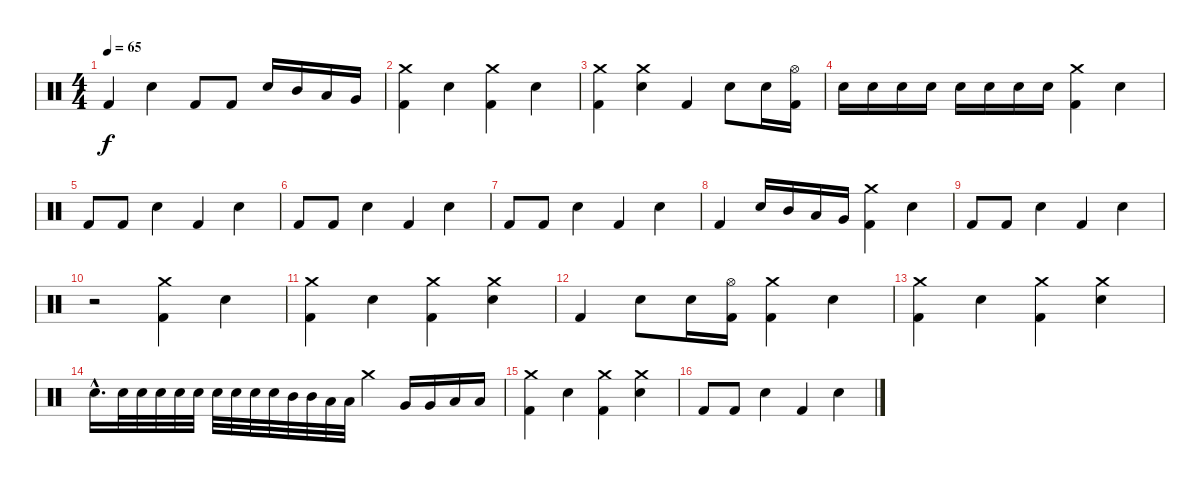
\track "" {instrument percussion}
\staff {score}
\articulation defaults
\ts (4 4)
\tempo 65
\clef neutral
\ks c "Kick (hit) 2".4{dy f} "Snare (hit) 2".4 "Kick (hit) 2".8 "Kick (hit) 2".8 "Electric Snare (hit)".16 "Mid Tom (hit)".16 "Low Tom (hit)".16 "Very Low Tom (hit)".16
|
("Kick (hit) 2" "Crash medium (hit)").4 "Snare (hit) 2".4 ("Kick (hit) 2" "Crash medium (hit)").4 "Snare (hit) 2".4 |
("Kick (hit) 2" "Crash medium (hit)").4 ("Crash medium (hit)" "Snare (hit) 2").4 "Kick (hit) 2".4 "Snare (hit) 2".8 "Snare (hit) 2".16 ("Kick (hit) 2" "Hi-Hat (open)").16 |
"Snare (hit) 2".16 "Snare (hit) 2".16 "Snare (hit) 2".16 "Snare (hit) 2".16 "Snare (hit) 2".16 "Snare (hit) 2".16 "Snare (hit) 2".16 "Snare (hit) 2".16 ("Kick (hit) 2" "Crash medium (hit)").4 "Snare (hit) 2".4 |
"Kick (hit) 2".8 "Kick (hit) 2".8 "Snare (hit) 2".4 "Kick (hit) 2".4 "Snare (hit) 2".4 |
"Kick (hit) 2".8 "Kick (hit) 2".8 "Snare (hit) 2".4 "Kick (hit) 2".4 "Snare (hit) 2".4 |
"Kick (hit) 2".8 "Kick (hit) 2".8 "Snare (hit) 2".4 "Kick (hit) 2".4 "Snare (hit) 2".4 |
"Kick (hit) 2".4 "Electric Snare (hit)".16 "Mid Tom (hit)".16 "Low Tom (hit)".16 "Very Low Tom (hit)".16 ("Kick (hit) 2" "Crash medium (hit)").4 "Snare (hit) 2".4 |
"Kick (hit) 2".8 "Kick (hit) 2".8 "Snare (hit) 2".4 "Kick (hit) 2".4 "Snare (hit) 2".4 |
r.2 ("Kick (hit) 2" "Crash medium (hit)").4 "Snare (hit) 2".4 |
("Kick (hit) 2" "Crash medium (hit)").4 "Snare (hit) 2".4 ("Kick (hit) 2" "Crash medium (hit)").4 ("Crash medium (hit)" "Snare (hit) 2").4 |
"Kick (hit) 2".4 "Snare (hit) 2".8 "Snare (hit) 2".16 ("Kick (hit) 2" "Hi-Hat (open)").16 ("Kick (hit) 2" "Crash medium (hit)").4 "Snare (hit) 2".4 |
("Kick (hit) 2" "Crash medium (hit)").4 "Snare (hit) 2".4 ("Kick (hit) 2" "Crash medium (hit)").4 ("Crash medium (hit)" "Snare (hit) 2").4 |
"Snare (hit) 2"{hac}.16{d} "Electric Snare (hit)".32 "Electric Snare (hit)".32 "Electric Snare (hit)".32 "Electric Snare (hit)".32 "Electric Snare (hit)".32 "Electric Snare (hit)".32 "Electric Snare (hit)".32 "Electric Snare (hit)".32 "Electric Snare (hit)".32 "Mid Tom (hit)".32 "Mid Tom (hit)".32 "Low Tom (hit)".32 "Low Tom (hit)".32 "Crash medium (hit)".4 "Very Low Tom (hit)".16 "Very Low Tom (hit)".16 "Low Floor Tom (hit)".16 "Low Floor Tom (hit)".16 |
("Kick (hit) 2" "Crash medium (hit)").4 "Snare (hit) 2".4 ("Kick (hit) 2" "Crash medium (hit)").4 ("Crash medium (hit)" "Snare (hit) 2").4 |
"Kick (hit) 2".8 "Kick (hit) 2".8 "Snare (hit) 2".4 "Kick (hit) 2".4 "Snare (hit) 2".4
